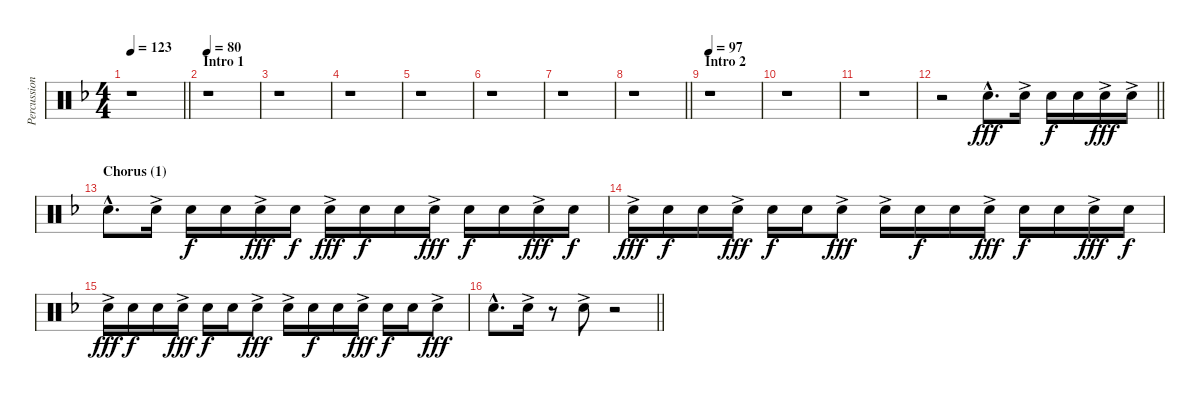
\track ("Percussion" "Percussion") {instrument percussion}
\staff {score}
\articulation defaults
\ts (4 4)
\tempo 123
\clef neutral
\barLineRight lightlight
\ks dminor
r.1{dy fff} |
\section ("" "Intro 1")
\tempo 80
r.1 |
r.1 |
r.1 |
r.1 |
r.1 |
r.1 |
\barLineRight lightlight
r.1 |
\section ("" "Intro 2")
\tempo 97
r.1 |
r.1 |
r.1 |
\barLineRight lightlight
r.2 "Hand Clap (hit)"{hac}.8{d} "Hand Clap (hit)"{ac}.16 "Hand Clap (hit)".16{dy f} "Hand Clap (hit)".16 "Hand Clap (hit)"{ac}.16{dy fff} "Hand Clap (hit)"{ac}.16 |
\section ("" "Chorus (1)")
"Hand Clap (hit)"{hac}.8{d} "Hand Clap (hit)"{ac}.16 "Hand Clap (hit)".16{dy f} "Hand Clap (hit)".16 "Hand Clap (hit)"{ac}.16{dy fff} "Hand Clap (hit)".16{dy f} "Hand Clap (hit)"{ac}.16{dy fff} "Hand Clap (hit)".16{dy f} "Hand Clap (hit)".16 "Hand Clap (hit)"{ac}.16{dy fff} "Hand Clap (hit)".16{dy f} "Hand Clap (hit)".16 "Hand Clap (hit)"{ac}.16{dy fff} "Hand Clap (hit)".16{dy f} |
"Hand Clap (hit)"{ac}.16{dy fff} "Hand Clap (hit)".16{dy f} "Hand Clap (hit)".16 "Hand Clap (hit)"{ac}.16{dy fff} "Hand Clap (hit)".16{dy f} "Hand Clap (hit)".16 "Hand Clap (hit)"{ac}.8{dy fff} "Hand Clap (hit)"{ac}.16 "Hand Clap (hit)".16{dy f} "Hand Clap (hit)".16 "Hand Clap (hit)"{ac}.16{dy fff} "Hand Clap (hit)".16{dy f} "Hand Clap (hit)".16 "Hand Clap (hit)"{ac}.16{dy fff} "Hand Clap (hit)".16{dy f} |
"Hand Clap (hit)"{ac}.16{dy fff} "Hand Clap (hit)".16{dy f} "Hand Clap (hit)".16 "Hand Clap (hit)"{ac}.16{dy fff} "Hand Clap (hit)".16{dy f} "Hand Clap (hit)".16 "Hand Clap (hit)"{ac}.8{dy fff} "Hand Clap (hit)"{ac}.16 "Hand Clap (hit)".16{dy f} "Hand Clap (hit)".16 "Hand Clap (hit)"{ac}.16{dy fff} "Hand Clap (hit)".16{dy f} "Hand Clap (hit)".16 "Hand Clap (hit)"{ac}.8{dy fff} |
\barLineRight lightlight "Hand Clap (hit)"{hac}.8{d} "Hand Clap (hit)"{ac}.16
r.8 "Hand Clap (hit)"{ac}.8 r.2
